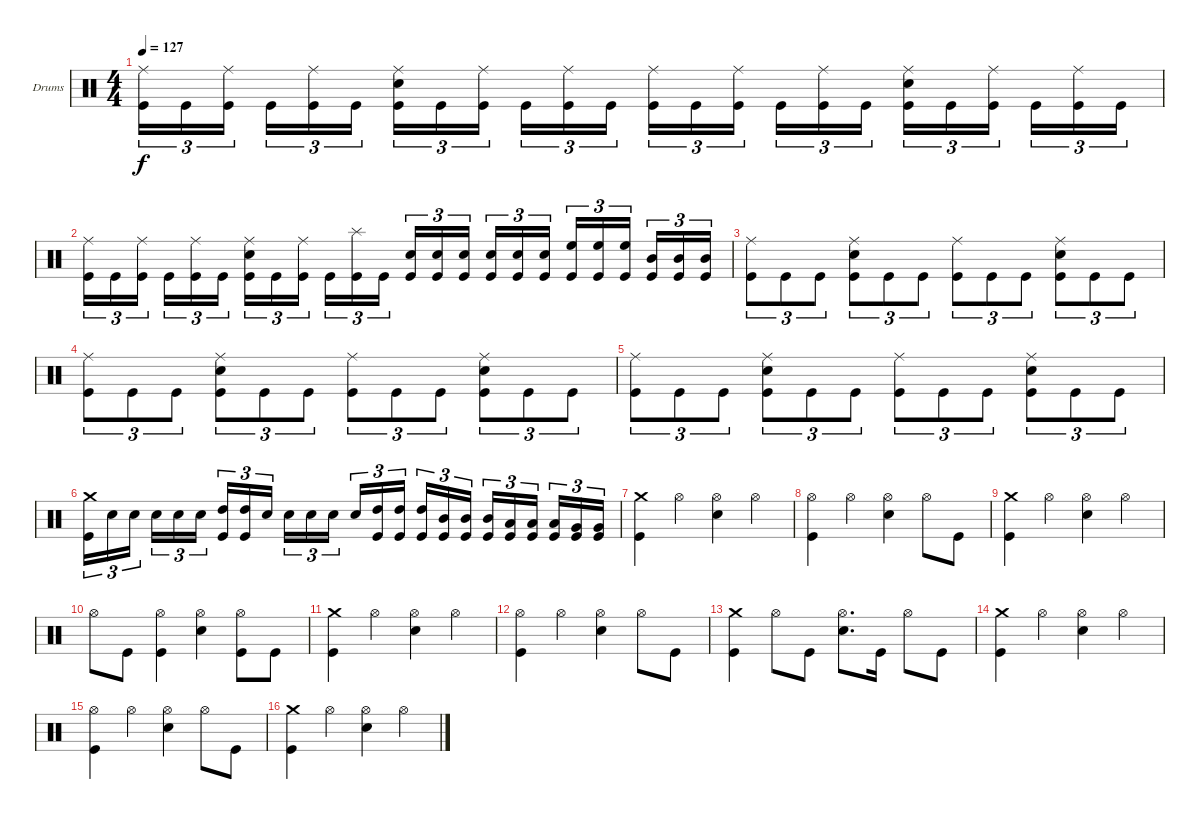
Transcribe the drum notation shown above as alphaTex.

\bracketExtendMode groupsimilarinstruments
\firstSystemTrackNameOrientation horizontal
\otherSystemsTrackNameOrientation horizontal
\track ("Drumkit" "Drums") {instrument percussion}
\staff {score}
\articulation defaults
\ts (4 4)
\tempo 127
\clef neutral
\ks c
("Ride (middle)" "Kick (hit)").16{tu (3 2) dy f} "Kick (hit)".16{tu (3 2)} ("Ride (middle)" "Kick (hit)").16{tu (3 2)} "Kick (hit)".16{tu (3 2)} ("Ride (middle)" "Kick (hit)").16{tu (3 2)} "Kick (hit)".16{tu (3 2)} ("Ride (middle)" "Snare (hit) 2" "Kick (hit)").16{tu (3 2)} "Kick (hit)".16{tu (3 2)} ("Ride (middle)" "Kick (hit)").16{tu (3 2)} "Kick (hit)".16{tu (3 2)} ("Ride (middle)" "Kick (hit)").16{tu (3 2)} "Kick (hit)".16{tu (3 2)} ("Ride (middle)" "Kick (hit)").16{tu (3 2)} "Kick (hit)".16{tu (3 2)} ("Ride (middle)" "Kick (hit)").16{tu (3 2)} "Kick (hit)".16{tu (3 2)} ("Ride (middle)" "Kick (hit)").16{tu (3 2)} "Kick (hit)".16{tu (3 2)} ("Ride (middle)" "Snare (hit) 2" "Kick (hit)").16{tu (3 2)} "Kick (hit)".16{tu (3 2)} ("Ride (middle)" "Kick (hit)").16{tu (3 2)} "Kick (hit)".16{tu (3 2)} ("Ride (middle)" "Kick (hit)").16{tu (3 2)} "Kick (hit)".16{tu (3 2)} |
("Ride (middle)" "Kick (hit)").16{tu (3 2)} "Kick (hit)".16{tu (3 2)} ("Ride (middle)" "Kick (hit)").16{tu (3 2)} "Kick (hit)".16{tu (3 2)} ("Ride (middle)" "Kick (hit)").16{tu (3 2)} "Kick (hit)".16{tu (3 2)} ("Ride (middle)" "Snare (hit) 2" "Kick (hit)").16{tu (3 2)} "Kick (hit)".16{tu (3 2)} ("Ride (middle)" "Kick (hit)").16{tu (3 2)} "Kick (hit)".16{tu (3 2)} ("Splash (hit)" "Kick (hit)").16{tu (3 2)} "Kick (hit)".16{tu (3 2)} ("Snare (hit) 2" "Kick (hit)").16{tu (3 2)} ("Snare (hit) 2" "Kick (hit)").16{tu (3 2)} ("Snare (hit) 2" "Kick (hit)").16{tu (3 2)} ("Snare (hit) 2" "Kick (hit)").16{tu (3 2)} ("Snare (hit) 2" "Kick (hit)").16{tu (3 2)} ("Snare (hit) 2" "Kick (hit)").16{tu (3 2)} ("High Floor Tom (hit)" "Kick (hit)").16{tu (3 2)} ("High Floor Tom (hit)" "Kick (hit)").16{tu (3 2)} ("High Floor Tom (hit)" "Kick (hit)").16{tu (3 2)} ("Mid Tom (hit)" "Kick (hit)").16{tu (3 2)} ("Mid Tom (hit)" "Kick (hit)").16{tu (3 2)} ("Mid Tom (hit)" "Kick (hit)").16{tu (3 2)} |
("Ride (middle)" "Kick (hit)").8{tu (3 2)} "Kick (hit)".8{tu (3 2)} "Kick (hit)".8{tu (3 2)} ("Ride (middle)" "Snare (hit) 2" "Kick (hit)").8{tu (3 2)} "Kick (hit)".8{tu (3 2)} "Kick (hit)".8{tu (3 2)} ("Ride (middle)" "Kick (hit)").8{tu (3 2)} "Kick (hit)".8{tu (3 2)} "Kick (hit)".8{tu (3 2)} ("Ride (middle)" "Snare (hit) 2" "Kick (hit)").8{tu (3 2)} "Kick (hit)".8{tu (3 2)} "Kick (hit)".8{tu (3 2)} |
("Ride (middle)" "Kick (hit)").8{tu (3 2)} "Kick (hit)".8{tu (3 2)} "Kick (hit)".8{tu (3 2)} ("Ride (middle)" "Snare (hit) 2" "Kick (hit)").8{tu (3 2)} "Kick (hit)".8{tu (3 2)} "Kick (hit)".8{tu (3 2)} ("Ride (middle)" "Kick (hit)").8{tu (3 2)} "Kick (hit)".8{tu (3 2)} "Kick (hit)".8{tu (3 2)} ("Ride (middle)" "Snare (hit) 2" "Kick (hit)").8{tu (3 2)} "Kick (hit)".8{tu (3 2)} "Kick (hit)".8{tu (3 2)} |
("Ride (middle)" "Kick (hit)").8{tu (3 2)} "Kick (hit)".8{tu (3 2)} "Kick (hit)".8{tu (3 2)} ("Ride (middle)" "Snare (hit) 2" "Kick (hit)").8{tu (3 2)} "Kick (hit)".8{tu (3 2)} "Kick (hit)".8{tu (3 2)} ("Ride (middle)" "Kick (hit)").8{tu (3 2)} "Kick (hit)".8{tu (3 2)} "Kick (hit)".8{tu (3 2)} ("Ride (middle)" "Snare (hit) 2" "Kick (hit)").8{tu (3 2)} "Kick (hit)".8{tu (3 2)} "Kick (hit)".8{tu (3 2)} |
("Crash medium (hit)" "Kick (hit)").16{tu (3 2)} "Snare (hit) 2".16{tu (3 2)} "Snare (hit) 2".16{tu (3 2)} "Snare (hit) 2".16{tu (3 2)} "Snare (hit) 2".16{tu (3 2)} "Snare (hit) 2".16{tu (3 2)} ("High Tom (hit)" "Kick (hit)").16{tu (3 2)} ("High Tom (hit)" "Kick (hit)").16{tu (3 2)} "Snare (hit) 2".16{tu (3 2)} "Snare (hit) 2".16{tu (3 2)} "Snare (hit) 2".16{tu (3 2)} "Snare (hit) 2".16{tu (3 2)} "Snare (hit) 2".16{tu (3 2)} ("High Tom (hit)" "Kick (hit)").16{tu (3 2)} ("High Tom (hit)" "Kick (hit)").16{tu (3 2)} ("High Tom (hit)" "Kick (hit)").16{tu (3 2)} ("Mid Tom (hit)" "Kick (hit)").16{tu (3 2)} ("Mid Tom (hit)" "Kick (hit)").16{tu (3 2)} ("Mid Tom (hit)" "Kick (hit)").16{tu (3 2)} ("Low Tom (hit)" "Kick (hit)").16{tu (3 2)} ("Low Tom (hit)" "Kick (hit)").16{tu (3 2)} ("Low Tom (hit)" "Kick (hit)").16{tu (3 2)} ("Very Low Tom (hit)" "Kick (hit)").16{tu (3 2)} ("Very Low Tom (hit)" "Kick (hit)").16{tu (3 2)} |
("Crash medium (hit)" "Kick (hit)").4 "Hi-Hat (open)".4 ("Hi-Hat (open)" "Snare (hit) 2").4 "Hi-Hat (open)".4 |
("Hi-Hat (open)" "Kick (hit)").4 "Hi-Hat (open)".4 ("Hi-Hat (open)" "Snare (hit) 2").4 "Hi-Hat (open)".8 "Kick (hit)".8 |
("Crash medium (hit)" "Kick (hit)").4 "Hi-Hat (open)".4 ("Hi-Hat (open)" "Snare (hit) 2").4 "Hi-Hat (open)".4 |
"Hi-Hat (open)".8 "Kick (hit)".8 ("Hi-Hat (open)" "Kick (hit)").4 ("Hi-Hat (open)" "Snare (hit) 2").4 ("Hi-Hat (open)" "Kick (hit)").8 "Kick (hit)".8 |
("Crash medium (hit)" "Kick (hit)").4 "Hi-Hat (open)".4 ("Hi-Hat (open)" "Snare (hit) 2").4 "Hi-Hat (open)".4 |
("Hi-Hat (open)" "Kick (hit)").4 "Hi-Hat (open)".4 ("Hi-Hat (open)" "Snare (hit) 2").4 "Hi-Hat (open)".8 "Kick (hit)".8 |
("Crash medium (hit)" "Kick (hit)").4 "Hi-Hat (open)".8 "Kick (hit)".8 ("Hi-Hat (open)" "Snare (hit) 2").8{d} "Kick (hit)".16 "Hi-Hat (open)".8 "Kick (hit)".8 |
("Crash medium (hit)" "Kick (hit)").4 "Hi-Hat (open)".4 ("Hi-Hat (open)" "Snare (hit) 2").4 "Hi-Hat (open)".4 |
("Hi-Hat (open)" "Kick (hit)").4 "Hi-Hat (open)".4 ("Hi-Hat (open)" "Snare (hit) 2").4 "Hi-Hat (open)".8 "Kick (hit)".8 |
("Crash medium (hit)" "Kick (hit)").4 "Hi-Hat (open)".4 ("Hi-Hat (open)" "Snare (hit) 2").4 "Hi-Hat (open)".4
